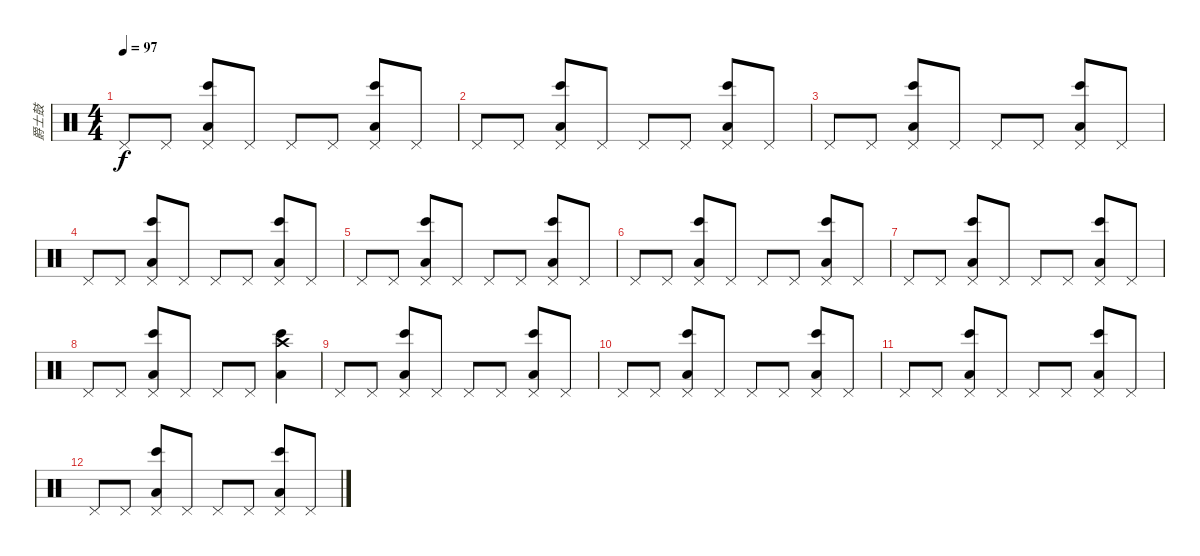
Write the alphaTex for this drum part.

\track ("爵士鼓" "爵士鼓") {instrument percussion}
\staff {score}
\articulation defaults
\ts (4 4)
\tempo 97
\clef neutral
\ks c "Pedal Hi-Hat (hit)".8{dy f volume 7} "Pedal Hi-Hat (hit)".8
("Pedal Hi-Hat (hit)" "Bongo High (hit)" "Low Tom (hit)").8 "Pedal Hi-Hat (hit)".8 "Pedal Hi-Hat (hit)".8 "Pedal Hi-Hat (hit)".8 ("Pedal Hi-Hat (hit)" "Bongo High (hit)" "Low Tom (hit)").8 "Pedal Hi-Hat (hit)".8 |
"Pedal Hi-Hat (hit)".8 "Pedal Hi-Hat (hit)".8 ("Pedal Hi-Hat (hit)" "Bongo High (hit)" "Low Tom (hit)").8 "Pedal Hi-Hat (hit)".8 "Pedal Hi-Hat (hit)".8 "Pedal Hi-Hat (hit)".8 ("Pedal Hi-Hat (hit)" "Bongo High (hit)" "Low Tom (hit)").8 "Pedal Hi-Hat (hit)".8 |
"Pedal Hi-Hat (hit)".8 "Pedal Hi-Hat (hit)".8 ("Pedal Hi-Hat (hit)" "Bongo High (hit)" "Low Tom (hit)").8 "Pedal Hi-Hat (hit)".8 "Pedal Hi-Hat (hit)".8 "Pedal Hi-Hat (hit)".8 ("Pedal Hi-Hat (hit)" "Bongo High (hit)" "Low Tom (hit)").8 "Pedal Hi-Hat (hit)".8 |
"Pedal Hi-Hat (hit)".8 "Pedal Hi-Hat (hit)".8 ("Pedal Hi-Hat (hit)" "Bongo High (hit)" "Low Tom (hit)").8 "Pedal Hi-Hat (hit)".8 "Pedal Hi-Hat (hit)".8 "Pedal Hi-Hat (hit)".8 ("Pedal Hi-Hat (hit)" "Bongo High (hit)" "Low Tom (hit)").8 "Pedal Hi-Hat (hit)".8 |
"Pedal Hi-Hat (hit)".8 "Pedal Hi-Hat (hit)".8 ("Pedal Hi-Hat (hit)" "Bongo High (hit)" "Low Tom (hit)").8 "Pedal Hi-Hat (hit)".8 "Pedal Hi-Hat (hit)".8 "Pedal Hi-Hat (hit)".8 ("Pedal Hi-Hat (hit)" "Bongo High (hit)" "Low Tom (hit)").8 "Pedal Hi-Hat (hit)".8 |
"Pedal Hi-Hat (hit)".8 "Pedal Hi-Hat (hit)".8 ("Pedal Hi-Hat (hit)" "Bongo High (hit)" "Low Tom (hit)").8 "Pedal Hi-Hat (hit)".8 "Pedal Hi-Hat (hit)".8 "Pedal Hi-Hat (hit)".8 ("Pedal Hi-Hat (hit)" "Bongo High (hit)" "Low Tom (hit)").8 "Pedal Hi-Hat (hit)".8 |
"Pedal Hi-Hat (hit)".8 "Pedal Hi-Hat (hit)".8 ("Pedal Hi-Hat (hit)" "Bongo High (hit)" "Low Tom (hit)").8 "Pedal Hi-Hat (hit)".8 "Pedal Hi-Hat (hit)".8 "Pedal Hi-Hat (hit)".8 ("Pedal Hi-Hat (hit)" "Bongo High (hit)" "Low Tom (hit)").8 "Pedal Hi-Hat (hit)".8 |
"Pedal Hi-Hat (hit)".8 "Pedal Hi-Hat (hit)".8 ("Pedal Hi-Hat (hit)" "Bongo High (hit)" "Low Tom (hit)").8 "Pedal Hi-Hat (hit)".8 "Pedal Hi-Hat (hit)".8 "Pedal Hi-Hat (hit)".8 ("Crash high (hit)" "Bongo High (hit)" "Low Tom (hit)").4 |
"Pedal Hi-Hat (hit)".8 "Pedal Hi-Hat (hit)".8 ("Pedal Hi-Hat (hit)" "Bongo High (hit)" "Low Tom (hit)").8 "Pedal Hi-Hat (hit)".8 "Pedal Hi-Hat (hit)".8 "Pedal Hi-Hat (hit)".8 ("Pedal Hi-Hat (hit)" "Bongo High (hit)" "Low Tom (hit)").8 "Pedal Hi-Hat (hit)".8 |
"Pedal Hi-Hat (hit)".8 "Pedal Hi-Hat (hit)".8 ("Pedal Hi-Hat (hit)" "Bongo High (hit)" "Low Tom (hit)").8 "Pedal Hi-Hat (hit)".8 "Pedal Hi-Hat (hit)".8 "Pedal Hi-Hat (hit)".8 ("Pedal Hi-Hat (hit)" "Bongo High (hit)" "Low Tom (hit)").8 "Pedal Hi-Hat (hit)".8 |
"Pedal Hi-Hat (hit)".8 "Pedal Hi-Hat (hit)".8 ("Pedal Hi-Hat (hit)" "Bongo High (hit)" "Low Tom (hit)").8 "Pedal Hi-Hat (hit)".8 "Pedal Hi-Hat (hit)".8{volume 8} "Pedal Hi-Hat (hit)".8 ("Pedal Hi-Hat (hit)" "Bongo High (hit)" "Low Tom (hit)").8 "Pedal Hi-Hat (hit)".8 |
"Pedal Hi-Hat (hit)".8 "Pedal Hi-Hat (hit)".8 ("Pedal Hi-Hat (hit)" "Bongo High (hit)" "Low Tom (hit)").8{volume 5} "Pedal Hi-Hat (hit)".8 "Pedal Hi-Hat (hit)".8 "Pedal Hi-Hat (hit)".8 ("Pedal Hi-Hat (hit)" "Bongo High (hit)" "Low Tom (hit)").8 "Pedal Hi-Hat (hit)".8
